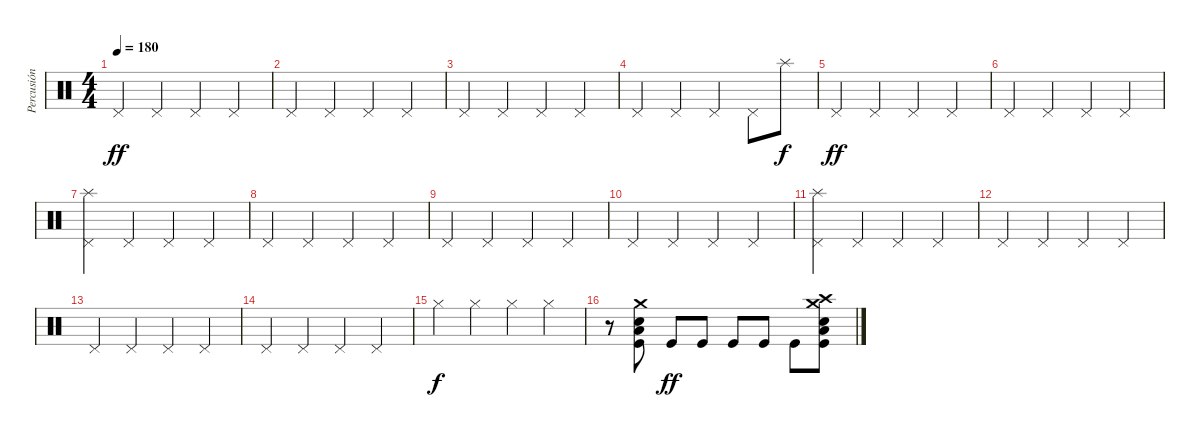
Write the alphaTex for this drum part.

\track ("Percusión" "Percusión") {instrument percussion}
\staff {score}
\articulation defaults
\ts (4 4)
\tempo 180
\clef neutral
\ks c "Pedal Hi-Hat (hit)".4{dy ff} "Pedal Hi-Hat (hit)".4 "Pedal Hi-Hat (hit)".4 "Pedal Hi-Hat (hit)".4
|
"Pedal Hi-Hat (hit)".4 "Pedal Hi-Hat (hit)".4 "Pedal Hi-Hat (hit)".4 "Pedal Hi-Hat (hit)".4 |
"Pedal Hi-Hat (hit)".4 "Pedal Hi-Hat (hit)".4 "Pedal Hi-Hat (hit)".4 "Pedal Hi-Hat (hit)".4 |
"Pedal Hi-Hat (hit)".4 "Pedal Hi-Hat (hit)".4 "Pedal Hi-Hat (hit)".4 "Pedal Hi-Hat (hit)".8 "Splash (hit)".8{dy f} |
"Pedal Hi-Hat (hit)".4{dy ff} "Pedal Hi-Hat (hit)".4 "Pedal Hi-Hat (hit)".4 "Pedal Hi-Hat (hit)".4 |
"Pedal Hi-Hat (hit)".4 "Pedal Hi-Hat (hit)".4 "Pedal Hi-Hat (hit)".4 "Pedal Hi-Hat (hit)".4 |
("Splash (hit)" "Pedal Hi-Hat (hit)").4 "Pedal Hi-Hat (hit)".4 "Pedal Hi-Hat (hit)".4 "Pedal Hi-Hat (hit)".4 |
"Pedal Hi-Hat (hit)".4 "Pedal Hi-Hat (hit)".4 "Pedal Hi-Hat (hit)".4 "Pedal Hi-Hat (hit)".4 |
"Pedal Hi-Hat (hit)".4 "Pedal Hi-Hat (hit)".4 "Pedal Hi-Hat (hit)".4 "Pedal Hi-Hat (hit)".4 |
"Pedal Hi-Hat (hit)".4 "Pedal Hi-Hat (hit)".4 "Pedal Hi-Hat (hit)".4 "Pedal Hi-Hat (hit)".4 |
("Splash (hit)" "Pedal Hi-Hat (hit)").4 "Pedal Hi-Hat (hit)".4 "Pedal Hi-Hat (hit)".4 "Pedal Hi-Hat (hit)".4 |
"Pedal Hi-Hat (hit)".4 "Pedal Hi-Hat (hit)".4 "Pedal Hi-Hat (hit)".4 "Pedal Hi-Hat (hit)".4 |
"Pedal Hi-Hat (hit)".4 "Pedal Hi-Hat (hit)".4 "Pedal Hi-Hat (hit)".4 "Pedal Hi-Hat (hit)".4 |
"Pedal Hi-Hat (hit)".4 "Pedal Hi-Hat (hit)".4 "Pedal Hi-Hat (hit)".4 "Pedal Hi-Hat (hit)".4 |
"Hi-Hat (closed)".4{dy f} "Hi-Hat (closed)".4 "Hi-Hat (closed)".4 "Hi-Hat (closed)".4 |
r.8 ("Crash medium (hit)" "Low Tom (hit)" "Electric Snare (hit)" "Kick (hit)").8 "Kick (hit)".8{dy ff} "Kick (hit)".8 "Kick (hit)".8 "Kick (hit)".8 "Kick (hit)".8 ("Crash high (hit)" "Crash medium (hit)" "Low Tom (hit)" "Electric Snare (hit)" "Kick (hit)").8
